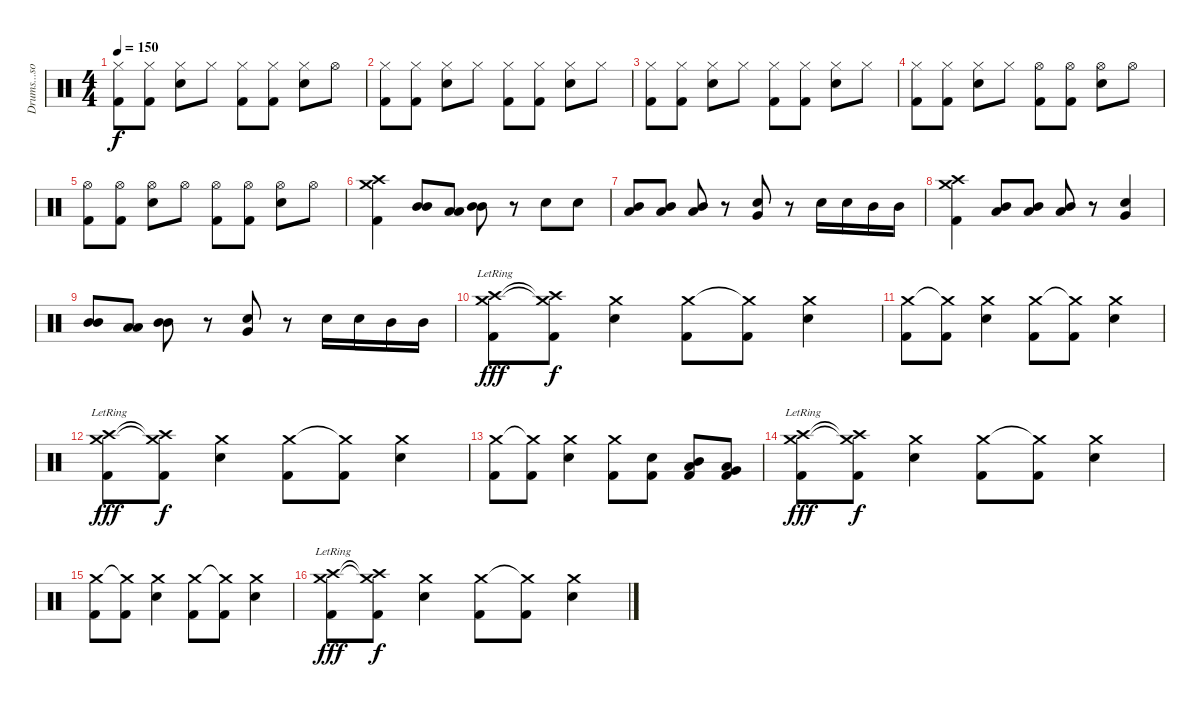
\track ("Drums...song tabbed by ae" "Drums...so") {instrument percussion}
\staff {score}
\articulation defaults
\ts (4 4)
\tempo 150
\clef neutral
\ks c
("Hi-Hat (closed)" "Kick (hit) 2").8{dy f} ("Hi-Hat (closed)" "Kick (hit) 2").8 ("Hi-Hat (closed)" "Electric Snare (hit)").8 "Hi-Hat (closed)".8 ("Hi-Hat (closed)" "Kick (hit) 2").8 ("Hi-Hat (closed)" "Kick (hit) 2").8 ("Hi-Hat (closed)" "Electric Snare (hit)").8 "Hi-Hat (open)".8 |
("Hi-Hat (closed)" "Kick (hit) 2").8 ("Hi-Hat (closed)" "Kick (hit) 2").8 ("Hi-Hat (closed)" "Electric Snare (hit)").8 "Hi-Hat (closed)".8 ("Hi-Hat (closed)" "Kick (hit) 2").8 ("Hi-Hat (closed)" "Kick (hit) 2").8 ("Hi-Hat (closed)" "Electric Snare (hit)").8 "Hi-Hat (closed)".8 |
("Hi-Hat (closed)" "Kick (hit) 2").8 ("Hi-Hat (closed)" "Kick (hit) 2").8 ("Hi-Hat (closed)" "Electric Snare (hit)").8 "Hi-Hat (closed)".8 ("Hi-Hat (closed)" "Kick (hit) 2").8 ("Hi-Hat (closed)" "Kick (hit) 2").8 ("Hi-Hat (closed)" "Electric Snare (hit)").8 "Hi-Hat (closed)".8 |
("Hi-Hat (closed)" "Kick (hit) 2").8 ("Hi-Hat (closed)" "Kick (hit) 2").8 ("Hi-Hat (closed)" "Electric Snare (hit)").8 "Hi-Hat (closed)".8 ("Hi-Hat (open)" "Kick (hit) 2").8 ("Hi-Hat (open)" "Kick (hit) 2").8 ("Hi-Hat (open)" "Electric Snare (hit)").8 "Hi-Hat (open)".8 |
("Hi-Hat (open)" "Kick (hit) 2").8 ("Hi-Hat (open)" "Kick (hit) 2").8 ("Hi-Hat (open)" "Electric Snare (hit)").8 "Hi-Hat (open)".8 ("Hi-Hat (open)" "Kick (hit) 2").8 ("Hi-Hat (open)" "Kick (hit) 2").8 ("Hi-Hat (open)" "Electric Snare (hit)").8 "Hi-Hat (open)".8 |
("Crash medium (hit)" "Crash high (hit)" "Kick (hit) 2").4 ("Mid Tom (hit)" "Mid Tom (hit)").8 ("Low Tom (hit)" "Low Tom (hit)").8 ("Mid Tom (hit)" "Mid Tom (hit)").8 r.8 "Electric Snare (hit)".8 "Electric Snare (hit)".8 |
("Mid Tom (hit)" "Low Tom (hit)").8 ("Mid Tom (hit)" "Low Tom (hit)").8 ("Mid Tom (hit)" "Low Tom (hit)").8 r.8 ("Electric Snare (hit)" "Very Low Tom (hit)").8 r.8 "Electric Snare (hit)".16 "Electric Snare (hit)".16 "Mid Tom (hit)".16 "Mid Tom (hit)".16 |
("Crash medium (hit)" "Crash high (hit)" "Kick (hit) 2").4 ("Mid Tom (hit)" "Low Tom (hit)").8 ("Mid Tom (hit)" "Low Tom (hit)").8 ("Mid Tom (hit)" "Low Tom (hit)").8 r.8 ("Electric Snare (hit)" "Very Low Tom (hit)").4 |
("Mid Tom (hit)" "Mid Tom (hit)").8 ("Low Tom (hit)" "Low Tom (hit)").8 ("Mid Tom (hit)" "Mid Tom (hit)").8 r.8 ("Electric Snare (hit)" "Very Low Tom (hit)").8 r.8 "Electric Snare (hit)".16 "Electric Snare (hit)".16 "Mid Tom (hit)".16 "Mid Tom (hit)".16 |
("Crash medium (hit)"{lr} "Crash high (hit)" "Kick (hit) 2").8{dy fff} ("Crash medium (hit)"{t} "Crash high (hit)"{t} "Kick (hit) 2").8{dy f} ("Crash medium (hit)" "Electric Snare (hit)").4 ("Crash medium (hit)" "Kick (hit) 2").8 ("Crash medium (hit)"{t} "Kick (hit) 2").8 ("Crash medium (hit)" "Electric Snare (hit)").4 |
("Crash medium (hit)" "Kick (hit) 2").8 ("Crash medium (hit)"{t} "Kick (hit) 2").8 ("Crash medium (hit)" "Electric Snare (hit)").4 ("Crash medium (hit)" "Kick (hit) 2").8 ("Crash medium (hit)"{t} "Kick (hit) 2").8 ("Crash medium (hit)" "Electric Snare (hit)").4 |
("Crash medium (hit)"{lr} "Crash high (hit)" "Kick (hit) 2").8{dy fff} ("Crash medium (hit)"{t} "Crash high (hit)"{t} "Kick (hit) 2").8{dy f} ("Crash medium (hit)" "Electric Snare (hit)").4 ("Crash medium (hit)" "Kick (hit) 2").8 ("Crash medium (hit)"{t} "Kick (hit) 2").8 ("Crash medium (hit)" "Electric Snare (hit)").4 |
("Crash medium (hit)" "Kick (hit) 2").8 ("Crash medium (hit)"{t} "Kick (hit) 2").8 ("Crash medium (hit)" "Electric Snare (hit)").4 ("Crash medium (hit)" "Kick (hit) 2").8 ("Electric Snare (hit)" "Kick (hit) 2").8 ("Mid Tom (hit)" "Low Tom (hit)" "Kick (hit) 2").8 ("Low Tom (hit)" "Very Low Tom (hit)" "Kick (hit) 2").8 |
("Crash medium (hit)"{lr} "Crash high (hit)" "Kick (hit) 2").8{dy fff} ("Crash medium (hit)"{t} "Crash high (hit)"{t} "Kick (hit) 2").8{dy f} ("Crash medium (hit)" "Electric Snare (hit)").4 ("Crash medium (hit)" "Kick (hit) 2").8 ("Crash medium (hit)"{t} "Kick (hit) 2").8 ("Crash medium (hit)" "Electric Snare (hit)").4 |
("Crash medium (hit)" "Kick (hit) 2").8 ("Crash medium (hit)"{t} "Kick (hit) 2").8 ("Crash medium (hit)" "Electric Snare (hit)").4 ("Crash medium (hit)" "Kick (hit) 2").8 ("Crash medium (hit)"{t} "Kick (hit) 2").8 ("Crash medium (hit)" "Electric Snare (hit)").4 |
("Crash medium (hit)"{lr} "Crash high (hit)" "Kick (hit) 2").8{dy fff} ("Crash medium (hit)"{t} "Crash high (hit)"{t} "Kick (hit) 2").8{dy f} ("Crash medium (hit)" "Electric Snare (hit)").4 ("Crash medium (hit)" "Kick (hit) 2").8 ("Crash medium (hit)"{t} "Kick (hit) 2").8 ("Crash medium (hit)" "Electric Snare (hit)").4
